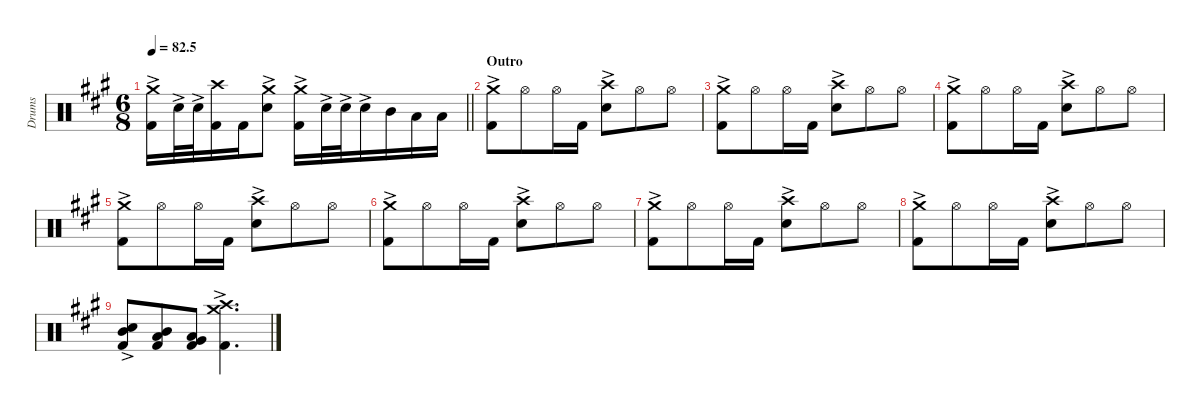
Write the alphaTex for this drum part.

\defaultSystemsLayout 4
\hideDynamics
\bracketExtendMode nobrackets
\otherSystemsTrackNameOrientation horizontal
\track ("Drumkit-show" "Drums") {defaultSystemsLayout 4 mute instrument percussion}
\staff {score}
\articulation defaults
\ts (6 8)
\tempo
82.5
\accidentals auto
\clef neutral
\ottava regular
\simile none
\barLineRight lightlight
\ks a
("Crash medium (hit)"{ac acc forcenatural} "Kick (hit) 2"{acc forcenatural}).16{dy f beam Down} "Snare (hit) 2"{ac acc forcenatural}.32{beam Down} "Snare (hit) 2"{ac acc forcenatural}.32{beam Down} ("Crash high (hit)"{acc forcenatural} "Kick (hit) 2"{acc forcenatural}).16{beam Down} "Kick (hit) 2"{acc forcenatural}.16{beam Down} ("Crash medium (hit)"{ac acc forcenatural} "Snare (hit) 2"{ac acc forcenatural}).8{beam Down} ("Crash medium (hit)"{ac acc forcenatural} "Kick (hit) 2"{acc forcenatural}).16{beam Down} "Snare (hit) 2"{ac acc forcenatural}.32{beam Down} "Snare (hit) 2"{ac acc forcenatural}.32{beam Down} "Snare (hit) 2"{ac acc forcenatural}.16{beam Down} "Mid Tom (hit)"{acc forcenatural}.16{beam Down} "Low Tom (hit)"{acc forcenatural}.16{beam Down} "Low Tom (hit)"{acc forcenatural}.16{beam Down} |
\section ("" "Outro")
("Crash medium (hit)"{ac acc forcenatural} "Kick (hit) 2"{acc forcenatural}).8{beam Down} "Hi-Hat (open)"{acc forcenatural}.8{beam Down} "Hi-Hat (open)"{acc forcenatural}.16{beam Down} "Kick (hit) 2"{acc forcenatural}.16{beam Down} ("Crash high (hit)"{acc forcenatural} "Snare (hit) 2"{ac acc forcenatural}).8{beam Down} "Hi-Hat (open)"{acc forcenatural}.8{beam Down} "Hi-Hat (open)"{acc forcenatural}.8{beam Down} |
("Crash medium (hit)"{ac acc forcenatural} "Kick (hit) 2"{acc forcenatural}).8{beam Down} "Hi-Hat (open)"{acc forcenatural}.8{beam Down} "Hi-Hat (open)"{acc forcenatural}.16{beam Down} "Kick (hit) 2"{acc forcenatural}.16{beam Down} ("Crash high (hit)"{acc forcenatural} "Snare (hit) 2"{ac acc forcenatural}).8{beam Down} "Hi-Hat (open)"{acc forcenatural}.8{beam Down} "Hi-Hat (open)"{acc forcenatural}.8{beam Down} |
("Crash medium (hit)"{ac acc forcenatural} "Kick (hit) 2"{acc forcenatural}).8{beam Down} "Hi-Hat (open)"{acc forcenatural}.8{beam Down} "Hi-Hat (open)"{acc forcenatural}.16{beam Down} "Kick (hit) 2"{acc forcenatural}.16{beam Down} ("Crash high (hit)"{acc forcenatural} "Snare (hit) 2"{ac acc forcenatural}).8{beam Down} "Hi-Hat (open)"{acc forcenatural}.8{beam Down} "Hi-Hat (open)"{acc forcenatural}.8{beam Down} |
("Crash medium (hit)"{ac acc forcenatural} "Kick (hit) 2"{acc forcenatural}).8{beam Down} "Hi-Hat (open)"{acc forcenatural}.8{beam Down} "Hi-Hat (open)"{acc forcenatural}.16{beam Down} "Kick (hit) 2"{acc forcenatural}.16{beam Down} ("Crash high (hit)"{acc forcenatural} "Snare (hit) 2"{ac acc forcenatural}).8{beam Down} "Hi-Hat (open)"{acc forcenatural}.8{beam Down} "Hi-Hat (open)"{acc forcenatural}.8{beam Down} |
("Crash medium (hit)"{ac acc forcenatural} "Kick (hit) 2"{acc forcenatural}).8{beam Down} "Hi-Hat (open)"{acc forcenatural}.8{beam Down} "Hi-Hat (open)"{acc forcenatural}.16{beam Down} "Kick (hit) 2"{acc forcenatural}.16{beam Down} ("Crash high (hit)"{acc forcenatural} "Snare (hit) 2"{ac acc forcenatural}).8{beam Down} "Hi-Hat (open)"{acc forcenatural}.8{beam Down} "Hi-Hat (open)"{acc forcenatural}.8{beam Down} |
("Crash medium (hit)"{ac acc forcenatural} "Kick (hit) 2"{acc forcenatural}).8{beam Down} "Hi-Hat (open)"{acc forcenatural}.8{beam Down} "Hi-Hat (open)"{acc forcenatural}.16{beam Down} "Kick (hit) 2"{acc forcenatural}.16{beam Down} ("Crash high (hit)"{acc forcenatural} "Snare (hit) 2"{ac acc forcenatural}).8{beam Down} "Hi-Hat (open)"{acc forcenatural}.8{beam Down} "Hi-Hat (open)"{acc forcenatural}.8{beam Down} |
("Crash medium (hit)"{ac acc forcenatural} "Kick (hit) 2"{acc forcenatural}).8{beam Down} "Hi-Hat (open)"{acc forcenatural}.8{beam Down} "Hi-Hat (open)"{acc forcenatural}.16{beam Down} "Kick (hit) 2"{acc forcenatural}.16{beam Down} ("Crash high (hit)"{acc forcenatural} "Snare (hit) 2"{ac acc forcenatural}).8{beam Down} "Hi-Hat (open)"{acc forcenatural}.8{beam Down} "Hi-Hat (open)"{acc forcenatural}.8{beam Down} |
("Mid Tom (hit)"{acc forcenatural} "Snare (hit) 2"{ac acc forcenatural} "Kick (hit) 2"{acc forcenatural}).8{beam Up} ("Mid Tom (hit)"{acc forcenatural} "Low Tom (hit)"{acc forcenatural} "Kick (hit) 2"{acc forcenatural}).8{beam Up} ("Low Tom (hit)"{acc forcenatural} "Very Low Tom (hit)"{acc forcenatural} "Kick (hit) 2"{acc forcenatural}).8{beam Up} ("Crash medium (hit)"{ac acc forcenatural} "Crash high (hit)"{acc forcenatural} "Kick (hit) 2"{acc forcenatural}).4{d beam Down}
